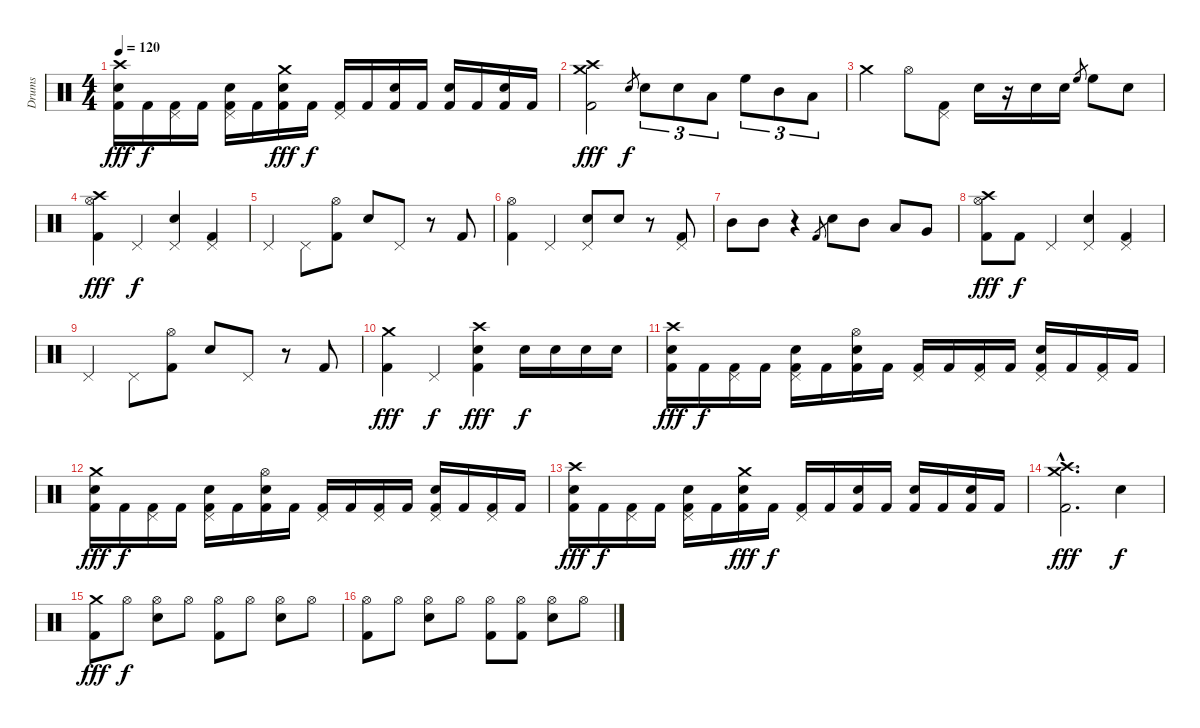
\track ("Drums" "Drums") {instrument percussion}
\staff {score}
\articulation defaults
\ts (4 4)
\tempo 120
\clef neutral
\ks c
("Crash high (hit)" "Electric Snare (hit)" "Kick (hit) 2").16{dy fff} "Kick (hit) 2".16{dy f} ("Pedal Hi-Hat (hit)" "Kick (hit) 2").16 "Kick (hit) 2".16 ("Pedal Hi-Hat (hit)" "Electric Snare (hit)" "Kick (hit) 2").16 "Kick (hit) 2".16 ("Crash medium (hit)" "Electric Snare (hit)" "Kick (hit) 2").16{dy fff} "Kick (hit) 2".16{dy f} ("Pedal Hi-Hat (hit)" "Kick (hit) 2").16 "Kick (hit) 2".16 ("Electric Snare (hit)" "Kick (hit) 2").16 "Kick (hit) 2".16 ("Electric Snare (hit)" "Kick (hit) 2").16 "Kick (hit) 2".16 ("Electric Snare (hit)" "Kick (hit) 2").16 "Kick (hit) 2".16 |
("Crash medium (hit)" "Crash high (hit)" "Kick (hit) 2").2{dy fff} "Electric Snare (hit)".8{gr dy f} "Electric Snare (hit)".8{tu (3 2)} "Electric Snare (hit)".8{tu (3 2)} "Low Tom (hit)".8{tu (3 2)} "High Floor Tom (hit)".8{tu (3 2)} "Mid Tom (hit)".8{tu (3 2)} "Low Tom (hit)".8{tu (3 2)} |
"Crash medium (hit)".4 "Hi-Hat (open)".8 ("Pedal Hi-Hat (hit)" "Kick (hit) 2").8 "Electric Snare (hit)".16 r.16 "Electric Snare (hit)".16 "Electric Snare (hit)".16 "High Floor Tom (hit)".8{gr} "High Floor Tom (hit)".8 "Electric Snare (hit)".8 |
("Crash high (hit)" "Hi-Hat (open)" "Kick (hit) 2").4{dy fff} "Pedal Hi-Hat (hit)".4{dy f} ("Pedal Hi-Hat (hit)" "Electric Snare (hit)").4 ("Pedal Hi-Hat (hit)" "Kick (hit) 2").4 |
"Pedal Hi-Hat (hit)".4 "Pedal Hi-Hat (hit)".8 ("Hi-Hat (open)" "Kick (hit) 2").8 "Electric Snare (hit)".8 "Pedal Hi-Hat (hit)".8 r.8 "Kick (hit) 2".8 |
("Hi-Hat (open)" "Kick (hit) 2").4 "Pedal Hi-Hat (hit)".4 ("Pedal Hi-Hat (hit)" "Electric Snare (hit)").8 "Electric Snare (hit)".8 r.8 ("Pedal Hi-Hat (hit)" "Kick (hit) 2").8 |
"Mid Tom (hit)".8 "Mid Tom (hit)".8 r.4 "Kick (hit) 2".8{gr} "Electric Snare (hit)".8 "Mid Tom (hit)".8 "Low Tom (hit)".8 "Very Low Tom (hit)".8 |
("Crash high (hit)" "Hi-Hat (open)" "Kick (hit) 2").8{dy fff} "Kick (hit) 2".8{dy f} "Pedal Hi-Hat (hit)".4 ("Pedal Hi-Hat (hit)" "Electric Snare (hit)").4 ("Pedal Hi-Hat (hit)" "Kick (hit) 2").4 |
"Pedal Hi-Hat (hit)".4 "Pedal Hi-Hat (hit)".8 ("Hi-Hat (open)" "Kick (hit) 2").8 "Electric Snare (hit)".8 "Pedal Hi-Hat (hit)".8 r.8 "Kick (hit) 2".8 |
("Crash medium (hit)" "Kick (hit) 2").4{dy fff} "Pedal Hi-Hat (hit)".4{dy f} ("Crash high (hit)" "Electric Snare (hit)" "Kick (hit) 2").4{dy fff} "Electric Snare (hit)".16{dy f} "Electric Snare (hit)".16 "Electric Snare (hit)".16 "Electric Snare (hit)".16 |
("Crash high (hit)" "Electric Snare (hit)" "Kick (hit) 2").16{dy fff} "Kick (hit) 2".16{dy f} ("Pedal Hi-Hat (hit)" "Kick (hit) 2").16 "Kick (hit) 2".16 ("Pedal Hi-Hat (hit)" "Electric Snare (hit)" "Kick (hit) 2").16 "Kick (hit) 2".16 ("Hi-Hat (open)" "Electric Snare (hit)" "Kick (hit) 2").16 "Kick (hit) 2".16 ("Pedal Hi-Hat (hit)" "Kick (hit) 2").16 "Kick (hit) 2".16 ("Pedal Hi-Hat (hit)" "Kick (hit) 2").16 "Kick (hit) 2".16 ("Pedal Hi-Hat (hit)" "Electric Snare (hit)" "Kick (hit) 2").16 "Kick (hit) 2".16 ("Pedal Hi-Hat (hit)" "Kick (hit) 2").16 "Kick (hit) 2".16 |
("Crash medium (hit)" "Electric Snare (hit)" "Kick (hit) 2").16{dy fff} "Kick (hit) 2".16{dy f} ("Pedal Hi-Hat (hit)" "Kick (hit) 2").16 "Kick (hit) 2".16 ("Pedal Hi-Hat (hit)" "Electric Snare (hit)" "Kick (hit) 2").16 "Kick (hit) 2".16 ("Hi-Hat (open)" "Electric Snare (hit)" "Kick (hit) 2").16 "Kick (hit) 2".16 ("Pedal Hi-Hat (hit)" "Kick (hit) 2").16 "Kick (hit) 2".16 ("Pedal Hi-Hat (hit)" "Kick (hit) 2").16 "Kick (hit) 2".16 ("Pedal Hi-Hat (hit)" "Electric Snare (hit)" "Kick (hit) 2").16 "Kick (hit) 2".16 ("Pedal Hi-Hat (hit)" "Kick (hit) 2").16 "Kick (hit) 2".16 |
("Crash high (hit)" "Electric Snare (hit)" "Kick (hit) 2").16{dy fff} "Kick (hit) 2".16{dy f} ("Pedal Hi-Hat (hit)" "Kick (hit) 2").16 "Kick (hit) 2".16 ("Pedal Hi-Hat (hit)" "Electric Snare (hit)" "Kick (hit) 2").16 "Kick (hit) 2".16 ("Crash medium (hit)" "Electric Snare (hit)" "Kick (hit) 2").16{dy fff} "Kick (hit) 2".16{dy f} ("Pedal Hi-Hat (hit)" "Kick (hit) 2").16 "Kick (hit) 2".16 ("Electric Snare (hit)" "Kick (hit) 2").16 "Kick (hit) 2".16 ("Electric Snare (hit)" "Kick (hit) 2").16 "Kick (hit) 2".16 ("Electric Snare (hit)" "Kick (hit) 2").16 "Kick (hit) 2".16 |
("Crash medium (hit)"{hac} "Crash high (hit)"{hac} "Kick (hit) 2"{hac}).2{d dy fff} "Electric Snare (hit)".4{dy f} |
("Crash medium (hit)" "Kick (hit) 2").8{dy fff} "Hi-Hat (open)".8{dy f} ("Hi-Hat (open)" "Electric Snare (hit)").8 "Hi-Hat (open)".8 ("Hi-Hat (open)" "Kick (hit) 2").8 "Hi-Hat (open)".8 ("Hi-Hat (open)" "Electric Snare (hit)").8 "Hi-Hat (open)".8 |
("Hi-Hat (open)" "Kick (hit) 2").8 "Hi-Hat (open)".8 ("Hi-Hat (open)" "Electric Snare (hit)").8 "Hi-Hat (open)".8 ("Hi-Hat (open)" "Kick (hit) 2").8 ("Hi-Hat (open)" "Kick (hit) 2").8 ("Hi-Hat (open)" "Electric Snare (hit)").8 "Hi-Hat (open)".8
